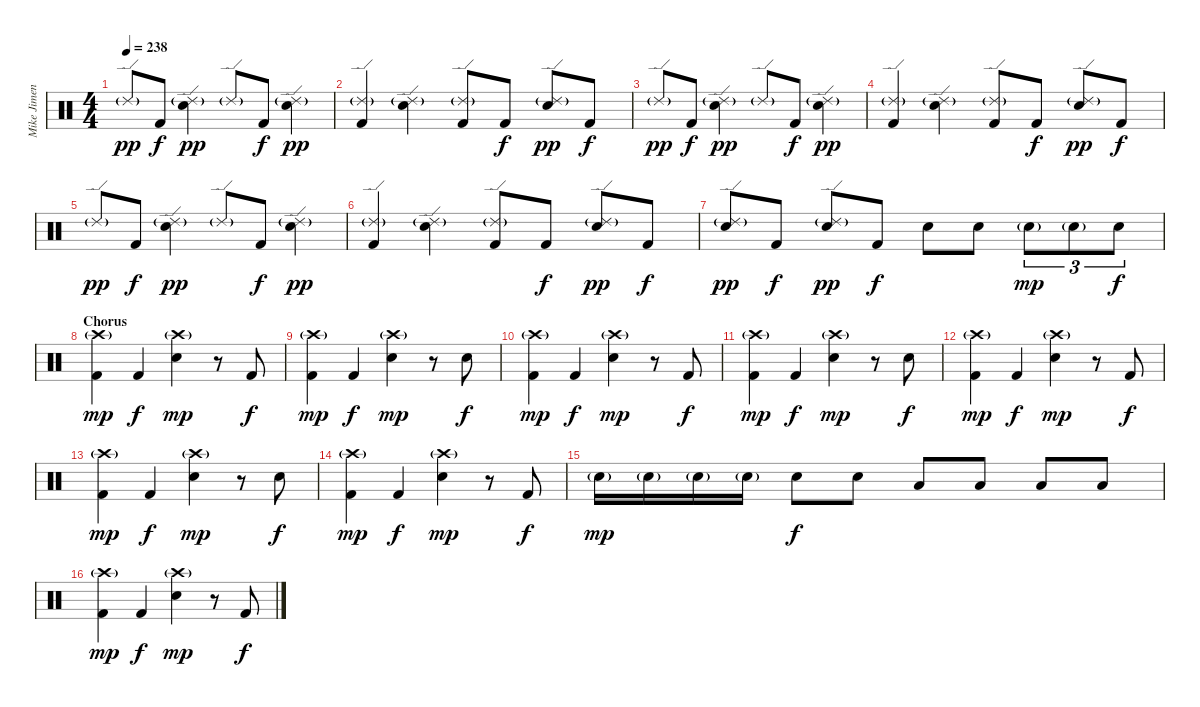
\track ("Mike Jimenez" "Mike Jimen") {instrument percussion}
\staff {score}
\articulation defaults
\ts (4 4)
\tempo 238
\clef neutral
\ks c "Ride (edge) 2"{g}.8{dy pp} "Kick (hit) 2".8{dy f}
("Ride (edge) 2"{g} "Electric Snare (hit)").4{dy pp} "Ride (edge) 2"{g}.8 "Kick (hit) 2".8{dy f} ("Ride (edge) 2"{g} "Electric Snare (hit)").4{dy pp} |
("Ride (edge) 2"{g} "Kick (hit) 2").4 ("Ride (edge) 2"{g} "Electric Snare (hit)").4 ("Ride (edge) 2"{g} "Kick (hit) 2").8 "Kick (hit) 2".8{dy f} ("Ride (edge) 2"{g} "Electric Snare (hit)").8{dy pp} "Kick (hit) 2".8{dy f} |
"Ride (edge) 2"{g}.8{dy pp} "Kick (hit) 2".8{dy f} ("Ride (edge) 2"{g} "Electric Snare (hit)").4{dy pp} "Ride (edge) 2"{g}.8 "Kick (hit) 2".8{dy f} ("Ride (edge) 2"{g} "Electric Snare (hit)").4{dy pp} |
("Ride (edge) 2"{g} "Kick (hit) 2").4 ("Ride (edge) 2"{g} "Electric Snare (hit)").4 ("Ride (edge) 2"{g} "Kick (hit) 2").8 "Kick (hit) 2".8{dy f} ("Ride (edge) 2"{g} "Electric Snare (hit)").8{dy pp} "Kick (hit) 2".8{dy f} |
"Ride (edge) 2"{g}.8{dy pp} "Kick (hit) 2".8{dy f} ("Ride (edge) 2"{g} "Electric Snare (hit)").4{dy pp} "Ride (edge) 2"{g}.8 "Kick (hit) 2".8{dy f} ("Ride (edge) 2"{g} "Electric Snare (hit)").4{dy pp} |
("Ride (edge) 2"{g} "Kick (hit) 2").4 ("Ride (edge) 2"{g} "Electric Snare (hit)").4 ("Ride (edge) 2"{g} "Kick (hit) 2").8 "Kick (hit) 2".8{dy f} ("Ride (edge) 2"{g} "Electric Snare (hit)").8{dy pp} "Kick (hit) 2".8{dy f} |
("Ride (edge) 2"{g} "Electric Snare (hit)").8{dy pp} "Kick (hit) 2".8{dy f} ("Ride (edge) 2"{g} "Electric Snare (hit)").8{dy pp} "Kick (hit) 2".8{dy f} "Electric Snare (hit)".8 "Electric Snare (hit)".8 "Electric Snare (hit)"{g}.8{tu (3 2) dy mp} "Electric Snare (hit)"{g}.8{tu (3 2)} "Electric Snare (hit)".8{tu (3 2) dy f} |
\section ("" "Chorus")
("Crash high (hit)"{g} "Kick (hit) 2").4{dy mp} "Kick (hit) 2".4{dy f} ("Crash high (hit)"{g} "Electric Snare (hit)").4{dy mp} r.8 "Kick (hit) 2".8{dy f} |
("Crash high (hit)"{g} "Kick (hit) 2").4{dy mp} "Kick (hit) 2".4{dy f} ("Crash high (hit)"{g} "Electric Snare (hit)").4{dy mp} r.8 "Electric Snare (hit)".8{dy f} |
("Crash high (hit)"{g} "Kick (hit) 2").4{dy mp} "Kick (hit) 2".4{dy f} ("Crash high (hit)"{g} "Electric Snare (hit)").4{dy mp} r.8 "Kick (hit) 2".8{dy f} |
("Crash high (hit)"{g} "Kick (hit) 2").4{dy mp} "Kick (hit) 2".4{dy f} ("Crash high (hit)"{g} "Electric Snare (hit)").4{dy mp} r.8 "Electric Snare (hit)".8{dy f} |
("Crash high (hit)"{g} "Kick (hit) 2").4{dy mp} "Kick (hit) 2".4{dy f} ("Crash high (hit)"{g} "Electric Snare (hit)").4{dy mp} r.8 "Kick (hit) 2".8{dy f} |
("Crash high (hit)"{g} "Kick (hit) 2").4{dy mp} "Kick (hit) 2".4{dy f} ("Crash high (hit)"{g} "Electric Snare (hit)").4{dy mp} r.8 "Electric Snare (hit)".8{dy f} |
("Crash high (hit)"{g} "Kick (hit) 2").4{dy mp} "Kick (hit) 2".4{dy f} ("Crash high (hit)"{g} "Electric Snare (hit)").4{dy mp} r.8 "Kick (hit) 2".8{dy f} |
"Electric Snare (hit)"{g}.16{dy mp} "Electric Snare (hit)"{g}.16 "Electric Snare (hit)"{g}.16 "Electric Snare (hit)"{g}.16 "Electric Snare (hit)".8{dy f} "Electric Snare (hit)".8 "Low Tom (hit)".8 "Low Tom (hit)".8 "Low Floor Tom (hit)".8 "Low Floor Tom (hit)".8 |
("Crash high (hit)"{g} "Kick (hit) 2").4{dy mp} "Kick (hit) 2".4{dy f} ("Crash high (hit)"{g} "Electric Snare (hit)").4{dy mp} r.8 "Kick (hit) 2".8{dy f}
